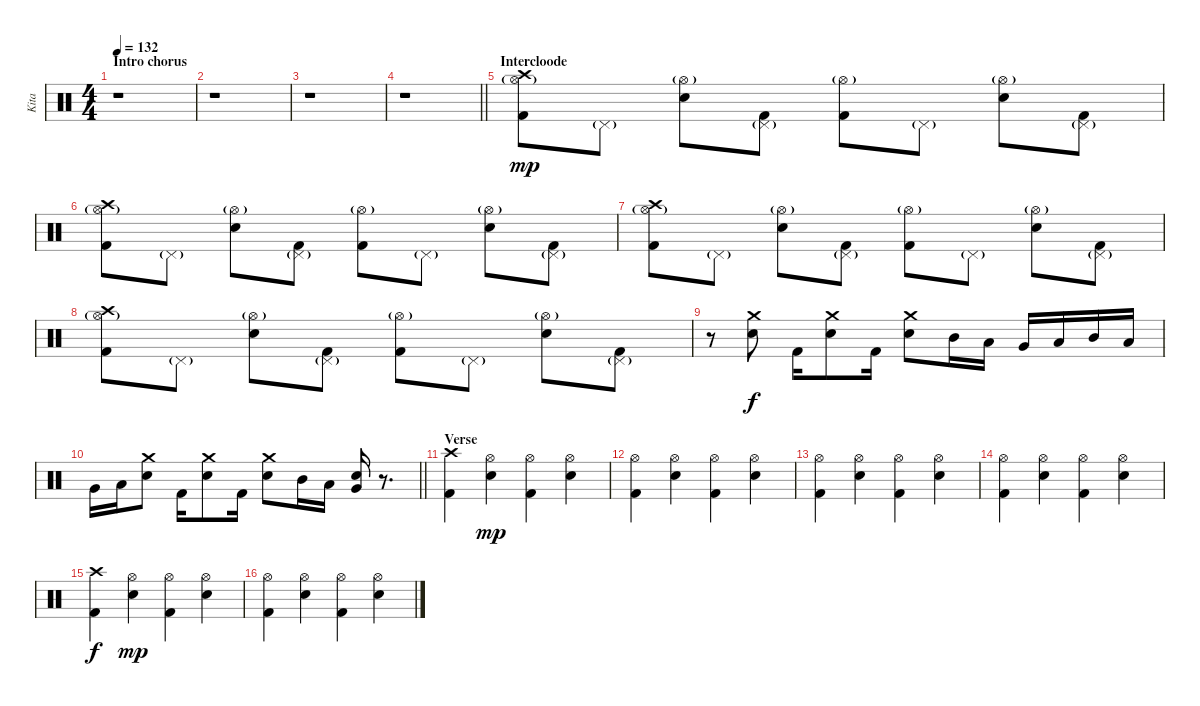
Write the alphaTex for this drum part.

\track ("Kita" "Kita") {instrument percussion}
\staff {score}
\articulation defaults
\ts (4 4)
\section ("" "Intro chorus")
\tempo 132
\clef neutral
\ks c
r.1{dy mp} |
r.1 |
r.1 |
\barLineRight lightlight
r.1 |
\section ("" "Intercloode")
("Crash high (hit)" "Hi-Hat (open)"{g} "Kick (hit) 2").8 "Pedal Hi-Hat (hit)"{g}.8 ("Hi-Hat (open)"{g} "Snare (hit) 2").8 ("Pedal Hi-Hat (hit)"{g} "Kick (hit) 2").8 ("Hi-Hat (open)"{g} "Kick (hit) 2").8 "Pedal Hi-Hat (hit)"{g}.8 ("Hi-Hat (open)"{g} "Snare (hit) 2").8 ("Pedal Hi-Hat (hit)"{g} "Kick (hit) 2").8 |
("Crash high (hit)" "Hi-Hat (open)"{g} "Kick (hit) 2").8 "Pedal Hi-Hat (hit)"{g}.8 ("Hi-Hat (open)"{g} "Snare (hit) 2").8 ("Pedal Hi-Hat (hit)"{g} "Kick (hit) 2").8 ("Hi-Hat (open)"{g} "Kick (hit) 2").8 "Pedal Hi-Hat (hit)"{g}.8 ("Hi-Hat (open)"{g} "Snare (hit) 2").8 ("Pedal Hi-Hat (hit)"{g} "Kick (hit) 2").8 |
("Crash high (hit)" "Hi-Hat (open)"{g} "Kick (hit) 2").8 "Pedal Hi-Hat (hit)"{g}.8 ("Hi-Hat (open)"{g} "Snare (hit) 2").8 ("Pedal Hi-Hat (hit)"{g} "Kick (hit) 2").8 ("Hi-Hat (open)"{g} "Kick (hit) 2").8 "Pedal Hi-Hat (hit)"{g}.8 ("Hi-Hat (open)"{g} "Snare (hit) 2").8 ("Pedal Hi-Hat (hit)"{g} "Kick (hit) 2").8 |
("Crash high (hit)" "Hi-Hat (open)"{g} "Kick (hit) 2").8 "Pedal Hi-Hat (hit)"{g}.8 ("Hi-Hat (open)"{g} "Snare (hit) 2").8 ("Pedal Hi-Hat (hit)"{g} "Kick (hit) 2").8 ("Hi-Hat (open)"{g} "Kick (hit) 2").8 "Pedal Hi-Hat (hit)"{g}.8 ("Hi-Hat (open)"{g} "Snare (hit) 2").8 ("Pedal Hi-Hat (hit)"{g} "Kick (hit) 2").8 |
r.8 ("Crash medium (hit)" "Snare (hit) 2").8{dy f} "Kick (hit) 2".16 ("Crash medium (hit)" "Snare (hit) 2").8 "Kick (hit) 2".16 ("Crash medium (hit)" "Snare (hit) 2").8 "Mid Tom (hit)".16 "Low Tom (hit)".16 "Very Low Tom (hit)".16 "Low Floor Tom (hit)".16 "Mid Tom (hit)".16 "Low Tom (hit)".16 |
\barLineRight lightlight "Very Low Tom (hit)".16 "Low Floor Tom (hit)".16
("Crash medium (hit)" "Snare (hit) 2").8 "Kick (hit) 2".16 ("Crash medium (hit)" "Snare (hit) 2").8 "Kick (hit) 2".16 ("Crash medium (hit)" "Snare (hit) 2").8 "Mid Tom (hit)".16 "Low Tom (hit)".16 ("Very Low Tom (hit)" "Snare (hit) 2").16 r.8{d} |
\section ("" "Verse")
("Crash high (hit)" "Kick (hit) 2").4 ("Hi-Hat (open)" "Snare (hit) 2").4{dy mp} ("Hi-Hat (open)" "Kick (hit) 2").4 ("Hi-Hat (open)" "Snare (hit) 2").4 |
("Hi-Hat (open)" "Kick (hit) 2").4 ("Hi-Hat (open)" "Snare (hit) 2").4 ("Hi-Hat (open)" "Kick (hit) 2").4 ("Hi-Hat (open)" "Snare (hit) 2").4 |
("Hi-Hat (open)" "Kick (hit) 2").4 ("Hi-Hat (open)" "Snare (hit) 2").4 ("Hi-Hat (open)" "Kick (hit) 2").4 ("Hi-Hat (open)" "Snare (hit) 2").4 |
("Hi-Hat (open)" "Kick (hit) 2").4 ("Hi-Hat (open)" "Snare (hit) 2").4 ("Hi-Hat (open)" "Kick (hit) 2").4 ("Hi-Hat (open)" "Snare (hit) 2").4 |
("Crash high (hit)" "Kick (hit) 2").4{dy f} ("Hi-Hat (open)" "Snare (hit) 2").4{dy mp} ("Hi-Hat (open)" "Kick (hit) 2").4 ("Hi-Hat (open)" "Snare (hit) 2").4 |
("Hi-Hat (open)" "Kick (hit) 2").4 ("Hi-Hat (open)" "Snare (hit) 2").4 ("Hi-Hat (open)" "Kick (hit) 2").4 ("Hi-Hat (open)" "Snare (hit) 2").4
